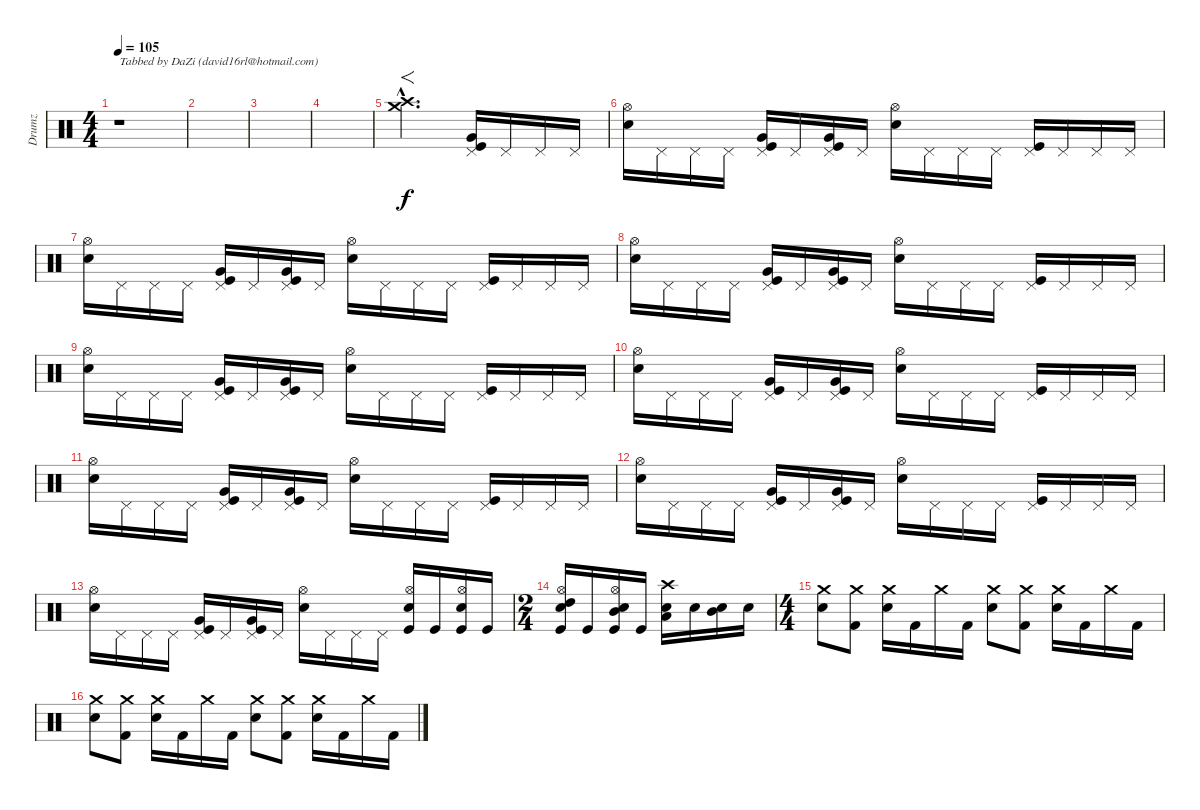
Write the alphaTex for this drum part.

\track ("Drumz" "Drumz") {instrument percussion}
\staff {score}
\articulation defaults
\ts (4 4)
\tempo 105
\clef neutral
\ks c
r.1{txt "Tabbed by DaZi (david16rl@hotmail.com)" dy f} |
|
|
|
("Crash medium (hit)"{hac} "Crash high (hit)"{hac}).2{f d volume 10 balance 13} ("Pedal Hi-Hat (hit)" "Very Low Tom (hit)" "Kick (hit)").16 "Pedal Hi-Hat (hit)".16 "Pedal Hi-Hat (hit)".16 "Pedal Hi-Hat (hit)".16 |
("Hi-Hat (open)" "Electric Snare (hit)").16 "Pedal Hi-Hat (hit)".16 "Pedal Hi-Hat (hit)".16 "Pedal Hi-Hat (hit)".16 ("Pedal Hi-Hat (hit)" "Very Low Tom (hit)" "Kick (hit)").16 "Pedal Hi-Hat (hit)".16 ("Pedal Hi-Hat (hit)" "Very Low Tom (hit)" "Kick (hit)").16 "Pedal Hi-Hat (hit)".16 ("Hi-Hat (open)" "Electric Snare (hit)").16 "Pedal Hi-Hat (hit)".16 "Pedal Hi-Hat (hit)".16 "Pedal Hi-Hat (hit)".16 ("Pedal Hi-Hat (hit)" "Kick (hit)").16 "Pedal Hi-Hat (hit)".16 "Pedal Hi-Hat (hit)".16 "Pedal Hi-Hat (hit)".16 |
("Hi-Hat (open)" "Electric Snare (hit)").16 "Pedal Hi-Hat (hit)".16 "Pedal Hi-Hat (hit)".16 "Pedal Hi-Hat (hit)".16 ("Pedal Hi-Hat (hit)" "Very Low Tom (hit)" "Kick (hit)").16 "Pedal Hi-Hat (hit)".16 ("Pedal Hi-Hat (hit)" "Very Low Tom (hit)" "Kick (hit)").16 "Pedal Hi-Hat (hit)".16 ("Hi-Hat (open)" "Electric Snare (hit)").16 "Pedal Hi-Hat (hit)".16 "Pedal Hi-Hat (hit)".16 "Pedal Hi-Hat (hit)".16 ("Pedal Hi-Hat (hit)" "Kick (hit)").16 "Pedal Hi-Hat (hit)".16 "Pedal Hi-Hat (hit)".16 "Pedal Hi-Hat (hit)".16 |
("Hi-Hat (open)" "Electric Snare (hit)").16 "Pedal Hi-Hat (hit)".16 "Pedal Hi-Hat (hit)".16 "Pedal Hi-Hat (hit)".16 ("Pedal Hi-Hat (hit)" "Very Low Tom (hit)" "Kick (hit)").16 "Pedal Hi-Hat (hit)".16 ("Pedal Hi-Hat (hit)" "Very Low Tom (hit)" "Kick (hit)").16 "Pedal Hi-Hat (hit)".16 ("Hi-Hat (open)" "Electric Snare (hit)").16 "Pedal Hi-Hat (hit)".16 "Pedal Hi-Hat (hit)".16 "Pedal Hi-Hat (hit)".16 ("Pedal Hi-Hat (hit)" "Kick (hit)").16 "Pedal Hi-Hat (hit)".16 "Pedal Hi-Hat (hit)".16 "Pedal Hi-Hat (hit)".16 |
("Hi-Hat (open)" "Electric Snare (hit)").16 "Pedal Hi-Hat (hit)".16 "Pedal Hi-Hat (hit)".16 "Pedal Hi-Hat (hit)".16 ("Pedal Hi-Hat (hit)" "Very Low Tom (hit)" "Kick (hit)").16 "Pedal Hi-Hat (hit)".16 ("Pedal Hi-Hat (hit)" "Very Low Tom (hit)" "Kick (hit)").16 "Pedal Hi-Hat (hit)".16 ("Hi-Hat (open)" "Electric Snare (hit)").16 "Pedal Hi-Hat (hit)".16 "Pedal Hi-Hat (hit)".16 "Pedal Hi-Hat (hit)".16 ("Pedal Hi-Hat (hit)" "Kick (hit)").16 "Pedal Hi-Hat (hit)".16 "Pedal Hi-Hat (hit)".16 "Pedal Hi-Hat (hit)".16 |
("Hi-Hat (open)" "Electric Snare (hit)").16 "Pedal Hi-Hat (hit)".16 "Pedal Hi-Hat (hit)".16 "Pedal Hi-Hat (hit)".16 ("Pedal Hi-Hat (hit)" "Very Low Tom (hit)" "Kick (hit)").16 "Pedal Hi-Hat (hit)".16 ("Pedal Hi-Hat (hit)" "Very Low Tom (hit)" "Kick (hit)").16 "Pedal Hi-Hat (hit)".16 ("Hi-Hat (open)" "Electric Snare (hit)").16 "Pedal Hi-Hat (hit)".16 "Pedal Hi-Hat (hit)".16 "Pedal Hi-Hat (hit)".16 ("Pedal Hi-Hat (hit)" "Kick (hit)").16 "Pedal Hi-Hat (hit)".16 "Pedal Hi-Hat (hit)".16 "Pedal Hi-Hat (hit)".16 |
("Hi-Hat (open)" "Electric Snare (hit)").16 "Pedal Hi-Hat (hit)".16 "Pedal Hi-Hat (hit)".16 "Pedal Hi-Hat (hit)".16 ("Pedal Hi-Hat (hit)" "Very Low Tom (hit)" "Kick (hit)").16 "Pedal Hi-Hat (hit)".16 ("Pedal Hi-Hat (hit)" "Very Low Tom (hit)" "Kick (hit)").16 "Pedal Hi-Hat (hit)".16 ("Hi-Hat (open)" "Electric Snare (hit)").16 "Pedal Hi-Hat (hit)".16 "Pedal Hi-Hat (hit)".16 "Pedal Hi-Hat (hit)".16 ("Pedal Hi-Hat (hit)" "Kick (hit)").16 "Pedal Hi-Hat (hit)".16 "Pedal Hi-Hat (hit)".16 "Pedal Hi-Hat (hit)".16 |
("Hi-Hat (open)" "Electric Snare (hit)").16 "Pedal Hi-Hat (hit)".16 "Pedal Hi-Hat (hit)".16 "Pedal Hi-Hat (hit)".16 ("Pedal Hi-Hat (hit)" "Very Low Tom (hit)" "Kick (hit)").16 "Pedal Hi-Hat (hit)".16 ("Pedal Hi-Hat (hit)" "Very Low Tom (hit)" "Kick (hit)").16 "Pedal Hi-Hat (hit)".16 ("Hi-Hat (open)" "Electric Snare (hit)").16 "Pedal Hi-Hat (hit)".16 "Pedal Hi-Hat (hit)".16 "Pedal Hi-Hat (hit)".16 ("Pedal Hi-Hat (hit)" "Kick (hit)").16 "Pedal Hi-Hat (hit)".16 "Pedal Hi-Hat (hit)".16 "Pedal Hi-Hat (hit)".16 |
("Hi-Hat (open)" "Electric Snare (hit)").16 "Pedal Hi-Hat (hit)".16 "Pedal Hi-Hat (hit)".16 "Pedal Hi-Hat (hit)".16 ("Pedal Hi-Hat (hit)" "Very Low Tom (hit)" "Kick (hit)").16 "Pedal Hi-Hat (hit)".16 ("Pedal Hi-Hat (hit)" "Very Low Tom (hit)" "Kick (hit)").16 "Pedal Hi-Hat (hit)".16 ("Hi-Hat (open)" "Electric Snare (hit)").16 "Pedal Hi-Hat (hit)".16 "Pedal Hi-Hat (hit)".16 "Pedal Hi-Hat (hit)".16 ("Hi-Hat (open)" "Electric Snare (hit)" "Kick (hit)").16 "Kick (hit)".16 ("Hi-Hat (open)" "Electric Snare (hit)" "Kick (hit)").16 "Kick (hit)".16 |
\ts (2 4)
("Hi-Hat (open)" "High Tom (hit)" "Electric Snare (hit)" "Kick (hit)").16 "Kick (hit)".16 ("Hi-Hat (open)" "Mid Tom (hit)" "Electric Snare (hit)" "Kick (hit)").16 "Kick (hit)".16 ("Crash high (hit)" "Low Tom (hit)" "Electric Snare (hit)").16 "Electric Snare (hit)".16 ("Mid Tom (hit)" "Electric Snare (hit)").16 "Electric Snare (hit)".16 |
\ts (4 4)
("Crash medium (hit)" "Electric Snare (hit)").8 ("Crash medium (hit)" "Kick (hit) 2").8 ("Crash medium (hit)" "Electric Snare (hit)").16 "Kick (hit) 2".16 "Crash medium (hit)".16 "Kick (hit) 2".16 ("Crash medium (hit)" "Electric Snare (hit)").8 ("Crash medium (hit)" "Kick (hit) 2").8 ("Crash medium (hit)" "Electric Snare (hit)").16 "Kick (hit) 2".16 "Crash medium (hit)".16 "Kick (hit) 2".16 |
("Crash medium (hit)" "Electric Snare (hit)").8 ("Crash medium (hit)" "Kick (hit) 2").8 ("Crash medium (hit)" "Electric Snare (hit)").16 "Kick (hit) 2".16 "Crash medium (hit)".16 "Kick (hit) 2".16 ("Crash medium (hit)" "Electric Snare (hit)").8 ("Crash medium (hit)" "Kick (hit) 2").8 ("Crash medium (hit)" "Electric Snare (hit)").16 "Kick (hit) 2".16 "Crash medium (hit)".16 "Kick (hit) 2".16
